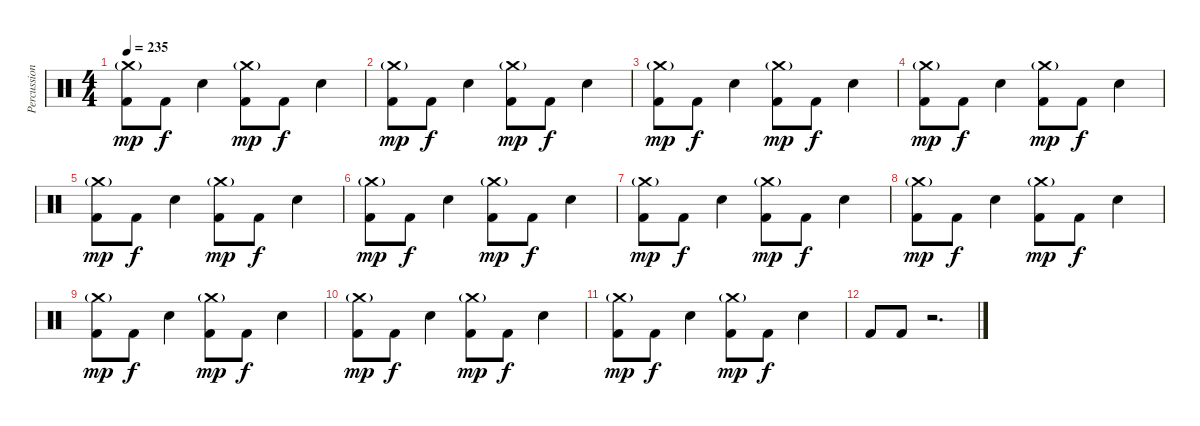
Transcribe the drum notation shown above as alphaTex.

\track ("Percussion" "Percussion") {instrument percussion}
\staff {score}
\articulation defaults
\ts (4 4)
\tempo 235
\clef neutral
\ks c
("Crash medium (hit)"{g} "Kick (hit) 2").8{dy mp} "Kick (hit) 2".8{dy f} "Electric Snare (hit)".4 ("Crash medium (hit)"{g} "Kick (hit) 2").8{dy mp} "Kick (hit) 2".8{dy f} "Electric Snare (hit)".4 |
("Crash medium (hit)"{g} "Kick (hit) 2").8{dy mp} "Kick (hit) 2".8{dy f} "Electric Snare (hit)".4 ("Crash medium (hit)"{g} "Kick (hit) 2").8{dy mp} "Kick (hit) 2".8{dy f} "Electric Snare (hit)".4 |
("Crash medium (hit)"{g} "Kick (hit) 2").8{dy mp} "Kick (hit) 2".8{dy f} "Electric Snare (hit)".4 ("Crash medium (hit)"{g} "Kick (hit) 2").8{dy mp} "Kick (hit) 2".8{dy f} "Electric Snare (hit)".4 |
("Crash medium (hit)"{g} "Kick (hit) 2").8{dy mp} "Kick (hit) 2".8{dy f} "Electric Snare (hit)".4 ("Crash medium (hit)"{g} "Kick (hit) 2").8{dy mp} "Kick (hit) 2".8{dy f} "Electric Snare (hit)".4 |
("Crash medium (hit)"{g} "Kick (hit) 2").8{dy mp} "Kick (hit) 2".8{dy f} "Electric Snare (hit)".4 ("Crash medium (hit)"{g} "Kick (hit) 2").8{dy mp} "Kick (hit) 2".8{dy f} "Electric Snare (hit)".4 |
("Crash medium (hit)"{g} "Kick (hit) 2").8{dy mp} "Kick (hit) 2".8{dy f} "Electric Snare (hit)".4 ("Crash medium (hit)"{g} "Kick (hit) 2").8{dy mp} "Kick (hit) 2".8{dy f} "Electric Snare (hit)".4 |
("Crash medium (hit)"{g} "Kick (hit) 2").8{dy mp} "Kick (hit) 2".8{dy f} "Electric Snare (hit)".4 ("Crash medium (hit)"{g} "Kick (hit) 2").8{dy mp} "Kick (hit) 2".8{dy f} "Electric Snare (hit)".4 |
("Crash medium (hit)"{g} "Kick (hit) 2").8{dy mp} "Kick (hit) 2".8{dy f} "Electric Snare (hit)".4 ("Crash medium (hit)"{g} "Kick (hit) 2").8{dy mp} "Kick (hit) 2".8{dy f} "Electric Snare (hit)".4 |
("Crash medium (hit)"{g} "Kick (hit) 2").8{dy mp} "Kick (hit) 2".8{dy f} "Electric Snare (hit)".4 ("Crash medium (hit)"{g} "Kick (hit) 2").8{dy mp} "Kick (hit) 2".8{dy f} "Electric Snare (hit)".4 |
("Crash medium (hit)"{g} "Kick (hit) 2").8{dy mp} "Kick (hit) 2".8{dy f} "Electric Snare (hit)".4 ("Crash medium (hit)"{g} "Kick (hit) 2").8{dy mp} "Kick (hit) 2".8{dy f} "Electric Snare (hit)".4 |
("Crash medium (hit)"{g} "Kick (hit) 2").8{dy mp} "Kick (hit) 2".8{dy f} "Electric Snare (hit)".4 ("Crash medium (hit)"{g} "Kick (hit) 2").8{dy mp} "Kick (hit) 2".8{dy f} "Electric Snare (hit)".4 |
"Kick (hit) 2".8 "Kick (hit) 2".8 r.2{d}
